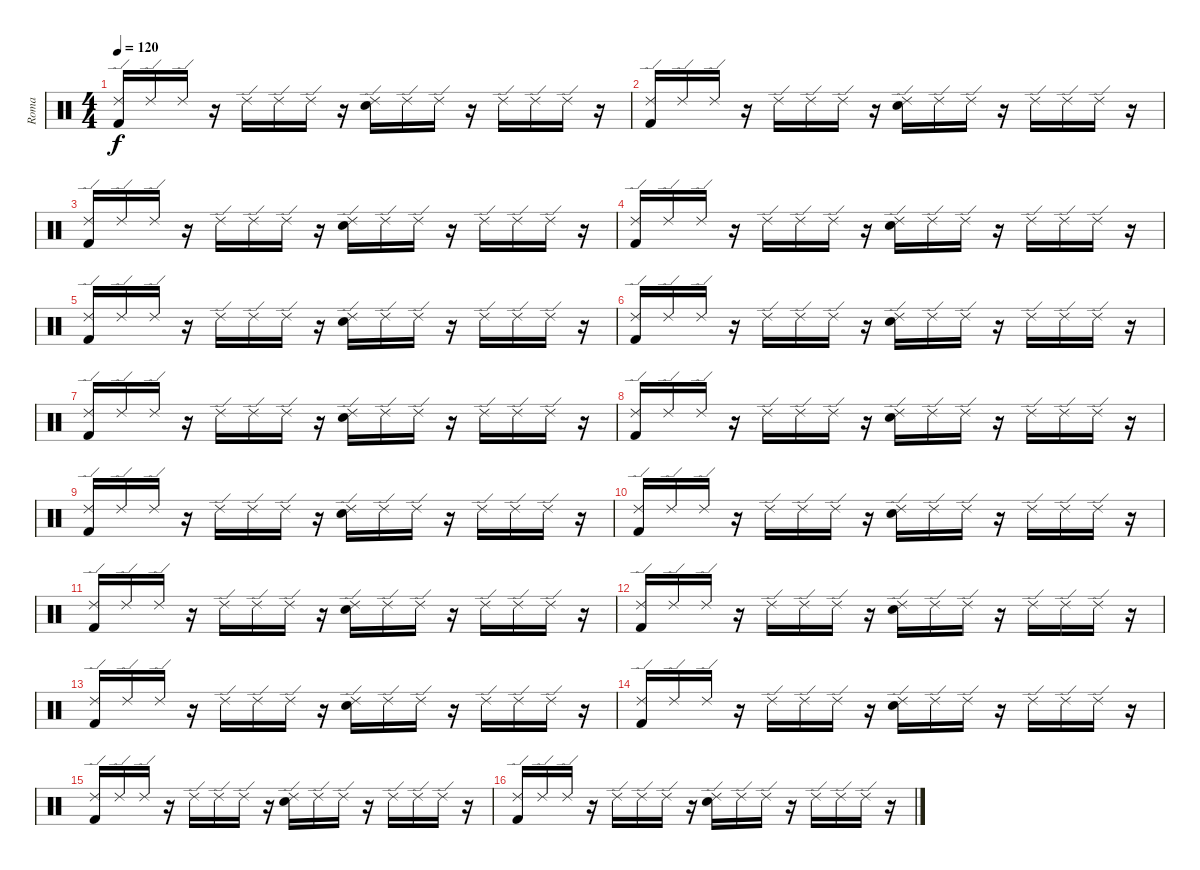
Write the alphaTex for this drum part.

\track ("Roma" "Roma") {instrument percussion}
\staff {score}
\articulation defaults
\ts (4 4)
\tempo 120
\clef neutral
\ks c
("Ride (edge) 2" "Kick (hit) 2").16{dy f} "Ride (edge) 2".16 "Ride (edge) 2".16 r.16 "Ride (edge) 2".16 "Ride (edge) 2".16 "Ride (edge) 2".16 r.16 ("Ride (edge) 2" "Electric Snare (hit)").16 "Ride (edge) 2".16 "Ride (edge) 2".16 r.16 "Ride (edge) 2".16 "Ride (edge) 2".16 "Ride (edge) 2".16 r.16 |
("Ride (edge) 2" "Kick (hit) 2").16 "Ride (edge) 2".16 "Ride (edge) 2".16 r.16 "Ride (edge) 2".16 "Ride (edge) 2".16 "Ride (edge) 2".16 r.16 ("Ride (edge) 2" "Electric Snare (hit)").16 "Ride (edge) 2".16 "Ride (edge) 2".16 r.16 "Ride (edge) 2".16 "Ride (edge) 2".16 "Ride (edge) 2".16 r.16 |
("Ride (edge) 2" "Kick (hit) 2").16 "Ride (edge) 2".16 "Ride (edge) 2".16 r.16 "Ride (edge) 2".16 "Ride (edge) 2".16 "Ride (edge) 2".16 r.16 ("Ride (edge) 2" "Electric Snare (hit)").16 "Ride (edge) 2".16 "Ride (edge) 2".16 r.16 "Ride (edge) 2".16 "Ride (edge) 2".16 "Ride (edge) 2".16 r.16 |
("Ride (edge) 2" "Kick (hit) 2").16 "Ride (edge) 2".16 "Ride (edge) 2".16 r.16 "Ride (edge) 2".16 "Ride (edge) 2".16 "Ride (edge) 2".16 r.16 ("Ride (edge) 2" "Electric Snare (hit)").16 "Ride (edge) 2".16 "Ride (edge) 2".16 r.16 "Ride (edge) 2".16 "Ride (edge) 2".16 "Ride (edge) 2".16 r.16 |
("Ride (edge) 2" "Kick (hit) 2").16 "Ride (edge) 2".16 "Ride (edge) 2".16 r.16 "Ride (edge) 2".16 "Ride (edge) 2".16 "Ride (edge) 2".16 r.16 ("Ride (edge) 2" "Electric Snare (hit)").16 "Ride (edge) 2".16 "Ride (edge) 2".16 r.16 "Ride (edge) 2".16 "Ride (edge) 2".16 "Ride (edge) 2".16 r.16 |
("Ride (edge) 2" "Kick (hit) 2").16 "Ride (edge) 2".16 "Ride (edge) 2".16 r.16 "Ride (edge) 2".16 "Ride (edge) 2".16 "Ride (edge) 2".16 r.16 ("Ride (edge) 2" "Electric Snare (hit)").16 "Ride (edge) 2".16 "Ride (edge) 2".16 r.16 "Ride (edge) 2".16 "Ride (edge) 2".16 "Ride (edge) 2".16 r.16 |
("Ride (edge) 2" "Kick (hit) 2").16 "Ride (edge) 2".16 "Ride (edge) 2".16 r.16 "Ride (edge) 2".16 "Ride (edge) 2".16 "Ride (edge) 2".16 r.16 ("Ride (edge) 2" "Electric Snare (hit)").16 "Ride (edge) 2".16 "Ride (edge) 2".16 r.16 "Ride (edge) 2".16 "Ride (edge) 2".16 "Ride (edge) 2".16 r.16 |
("Ride (edge) 2" "Kick (hit) 2").16 "Ride (edge) 2".16 "Ride (edge) 2".16 r.16 "Ride (edge) 2".16 "Ride (edge) 2".16 "Ride (edge) 2".16 r.16 ("Ride (edge) 2" "Electric Snare (hit)").16 "Ride (edge) 2".16 "Ride (edge) 2".16 r.16 "Ride (edge) 2".16 "Ride (edge) 2".16 "Ride (edge) 2".16 r.16 |
("Ride (edge) 2" "Kick (hit) 2").16 "Ride (edge) 2".16 "Ride (edge) 2".16 r.16 "Ride (edge) 2".16 "Ride (edge) 2".16 "Ride (edge) 2".16 r.16 ("Ride (edge) 2" "Electric Snare (hit)").16 "Ride (edge) 2".16 "Ride (edge) 2".16 r.16 "Ride (edge) 2".16 "Ride (edge) 2".16 "Ride (edge) 2".16 r.16 |
("Ride (edge) 2" "Kick (hit) 2").16 "Ride (edge) 2".16 "Ride (edge) 2".16 r.16 "Ride (edge) 2".16 "Ride (edge) 2".16 "Ride (edge) 2".16 r.16 ("Ride (edge) 2" "Electric Snare (hit)").16 "Ride (edge) 2".16 "Ride (edge) 2".16 r.16 "Ride (edge) 2".16 "Ride (edge) 2".16 "Ride (edge) 2".16 r.16 |
("Ride (edge) 2" "Kick (hit) 2").16 "Ride (edge) 2".16 "Ride (edge) 2".16 r.16 "Ride (edge) 2".16 "Ride (edge) 2".16 "Ride (edge) 2".16 r.16 ("Ride (edge) 2" "Electric Snare (hit)").16 "Ride (edge) 2".16 "Ride (edge) 2".16 r.16 "Ride (edge) 2".16 "Ride (edge) 2".16 "Ride (edge) 2".16 r.16 |
("Ride (edge) 2" "Kick (hit) 2").16 "Ride (edge) 2".16 "Ride (edge) 2".16 r.16 "Ride (edge) 2".16 "Ride (edge) 2".16 "Ride (edge) 2".16 r.16 ("Ride (edge) 2" "Electric Snare (hit)").16 "Ride (edge) 2".16 "Ride (edge) 2".16 r.16 "Ride (edge) 2".16 "Ride (edge) 2".16 "Ride (edge) 2".16 r.16 |
("Ride (edge) 2" "Kick (hit) 2").16 "Ride (edge) 2".16 "Ride (edge) 2".16 r.16 "Ride (edge) 2".16 "Ride (edge) 2".16 "Ride (edge) 2".16 r.16 ("Ride (edge) 2" "Electric Snare (hit)").16 "Ride (edge) 2".16 "Ride (edge) 2".16 r.16 "Ride (edge) 2".16 "Ride (edge) 2".16 "Ride (edge) 2".16 r.16 |
("Ride (edge) 2" "Kick (hit) 2").16 "Ride (edge) 2".16 "Ride (edge) 2".16 r.16 "Ride (edge) 2".16 "Ride (edge) 2".16 "Ride (edge) 2".16 r.16 ("Ride (edge) 2" "Electric Snare (hit)").16 "Ride (edge) 2".16 "Ride (edge) 2".16 r.16 "Ride (edge) 2".16 "Ride (edge) 2".16 "Ride (edge) 2".16 r.16 |
("Ride (edge) 2" "Kick (hit) 2").16 "Ride (edge) 2".16 "Ride (edge) 2".16 r.16 "Ride (edge) 2".16 "Ride (edge) 2".16 "Ride (edge) 2".16 r.16 ("Ride (edge) 2" "Electric Snare (hit)").16 "Ride (edge) 2".16 "Ride (edge) 2".16 r.16 "Ride (edge) 2".16 "Ride (edge) 2".16 "Ride (edge) 2".16 r.16 |
("Ride (edge) 2" "Kick (hit) 2").16 "Ride (edge) 2".16 "Ride (edge) 2".16 r.16 "Ride (edge) 2".16 "Ride (edge) 2".16 "Ride (edge) 2".16 r.16 ("Ride (edge) 2" "Electric Snare (hit)").16 "Ride (edge) 2".16 "Ride (edge) 2".16 r.16 "Ride (edge) 2".16 "Ride (edge) 2".16 "Ride (edge) 2".16 r.16
